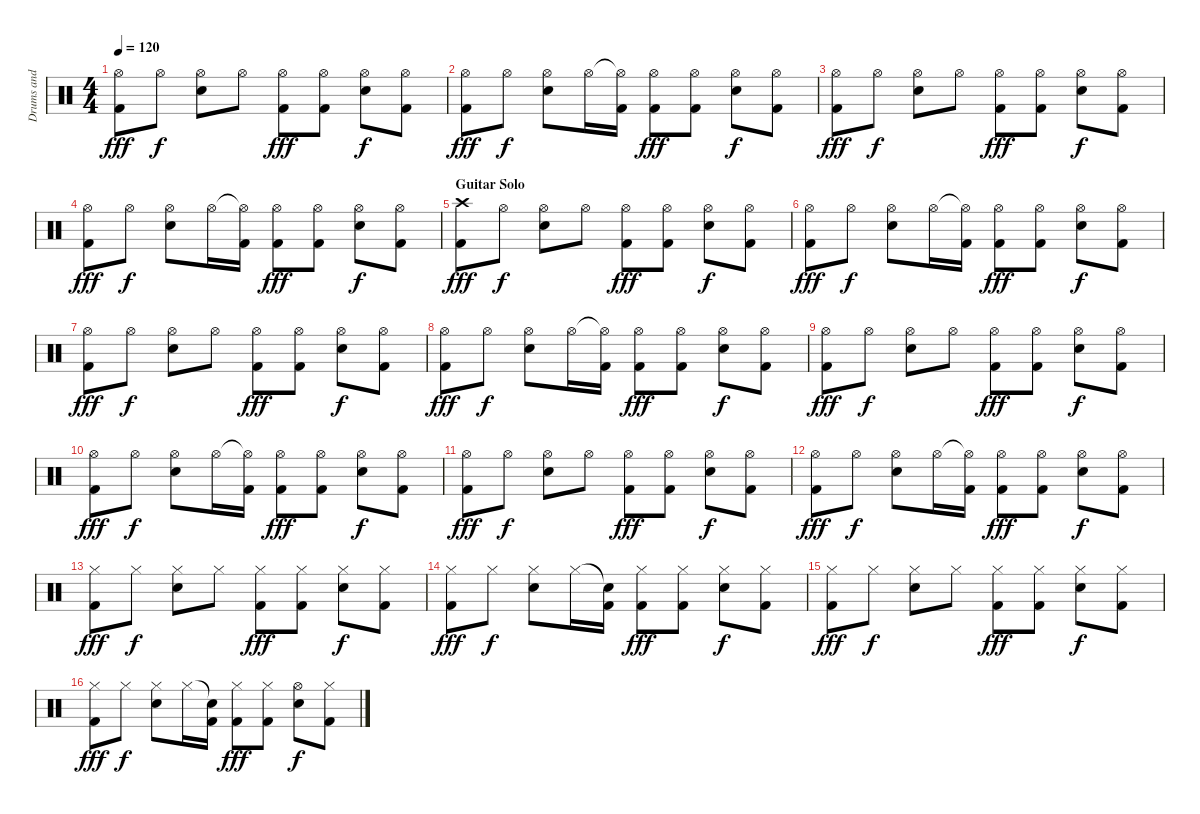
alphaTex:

\track ("Drums and Percussion" "Drums and ") {instrument percussion}
\staff {score}
\articulation defaults
\ts (4 4)
\tempo 120
\clef neutral
\ks c
("Hi-Hat (open)" "Kick (hit) 2").8{dy fff} "Hi-Hat (open)".8{dy f} ("Hi-Hat (open)" "Snare (hit) 2").8 "Hi-Hat (open)".8 ("Hi-Hat (open)" "Kick (hit) 2").8{dy fff} ("Hi-Hat (open)" "Kick (hit) 2").8 ("Hi-Hat (open)" "Snare (hit) 2").8{dy f} ("Hi-Hat (open)" "Kick (hit) 2").8 |
("Hi-Hat (open)" "Kick (hit) 2").8{dy fff} "Hi-Hat (open)".8{dy f} ("Hi-Hat (open)" "Snare (hit) 2").8 "Hi-Hat (open)".16 ("Hi-Hat (open)"{t} "Kick (hit) 2").16 ("Hi-Hat (open)" "Kick (hit) 2").8{dy fff} ("Hi-Hat (open)" "Kick (hit) 2").8 ("Hi-Hat (open)" "Snare (hit) 2").8{dy f} ("Hi-Hat (open)" "Kick (hit) 2").8 |
("Hi-Hat (open)" "Kick (hit) 2").8{dy fff} "Hi-Hat (open)".8{dy f} ("Hi-Hat (open)" "Snare (hit) 2").8 "Hi-Hat (open)".8 ("Hi-Hat (open)" "Kick (hit) 2").8{dy fff} ("Hi-Hat (open)" "Kick (hit) 2").8 ("Hi-Hat (open)" "Snare (hit) 2").8{dy f} ("Hi-Hat (open)" "Kick (hit) 2").8 |
("Hi-Hat (open)" "Kick (hit) 2").8{dy fff} "Hi-Hat (open)".8{dy f} ("Hi-Hat (open)" "Snare (hit) 2").8 "Hi-Hat (open)".16 ("Hi-Hat (open)"{t} "Kick (hit) 2").16 ("Hi-Hat (open)" "Kick (hit) 2").8{dy fff} ("Hi-Hat (open)" "Kick (hit) 2").8 ("Hi-Hat (open)" "Snare (hit) 2").8{dy f} ("Hi-Hat (open)" "Kick (hit) 2").8 |
\section ("" "Guitar Solo")
("Crash high (hit)" "Kick (hit) 2").8{dy fff} "Hi-Hat (open)".8{dy f} ("Hi-Hat (open)" "Snare (hit) 2").8 "Hi-Hat (open)".8 ("Hi-Hat (open)" "Kick (hit) 2").8{dy fff} ("Hi-Hat (open)" "Kick (hit) 2").8 ("Hi-Hat (open)" "Snare (hit) 2").8{dy f} ("Hi-Hat (open)" "Kick (hit) 2").8 |
("Hi-Hat (open)" "Kick (hit) 2").8{dy fff} "Hi-Hat (open)".8{dy f} ("Hi-Hat (open)" "Snare (hit) 2").8 "Hi-Hat (open)".16 ("Hi-Hat (open)"{t} "Kick (hit) 2").16 ("Hi-Hat (open)" "Kick (hit) 2").8{dy fff} ("Hi-Hat (open)" "Kick (hit) 2").8 ("Hi-Hat (open)" "Snare (hit) 2").8{dy f} ("Hi-Hat (open)" "Kick (hit) 2").8 |
("Hi-Hat (open)" "Kick (hit) 2").8{dy fff} "Hi-Hat (open)".8{dy f} ("Hi-Hat (open)" "Snare (hit) 2").8 "Hi-Hat (open)".8 ("Hi-Hat (open)" "Kick (hit) 2").8{dy fff} ("Hi-Hat (open)" "Kick (hit) 2").8 ("Hi-Hat (open)" "Snare (hit) 2").8{dy f} ("Hi-Hat (open)" "Kick (hit) 2").8 |
("Hi-Hat (open)" "Kick (hit) 2").8{dy fff} "Hi-Hat (open)".8{dy f} ("Hi-Hat (open)" "Snare (hit) 2").8 "Hi-Hat (open)".16 ("Hi-Hat (open)"{t} "Kick (hit) 2").16 ("Hi-Hat (open)" "Kick (hit) 2").8{dy fff} ("Hi-Hat (open)" "Kick (hit) 2").8 ("Hi-Hat (open)" "Snare (hit) 2").8{dy f} ("Hi-Hat (open)" "Kick (hit) 2").8 |
("Hi-Hat (open)" "Kick (hit) 2").8{dy fff} "Hi-Hat (open)".8{dy f} ("Hi-Hat (open)" "Snare (hit) 2").8 "Hi-Hat (open)".8 ("Hi-Hat (open)" "Kick (hit) 2").8{dy fff} ("Hi-Hat (open)" "Kick (hit) 2").8 ("Hi-Hat (open)" "Snare (hit) 2").8{dy f} ("Hi-Hat (open)" "Kick (hit) 2").8 |
("Hi-Hat (open)" "Kick (hit) 2").8{dy fff} "Hi-Hat (open)".8{dy f} ("Hi-Hat (open)" "Snare (hit) 2").8 "Hi-Hat (open)".16 ("Hi-Hat (open)"{t} "Kick (hit) 2").16 ("Hi-Hat (open)" "Kick (hit) 2").8{dy fff} ("Hi-Hat (open)" "Kick (hit) 2").8 ("Hi-Hat (open)" "Snare (hit) 2").8{dy f} ("Hi-Hat (open)" "Kick (hit) 2").8 |
("Hi-Hat (open)" "Kick (hit) 2").8{dy fff} "Hi-Hat (open)".8{dy f} ("Hi-Hat (open)" "Snare (hit) 2").8 "Hi-Hat (open)".8 ("Hi-Hat (open)" "Kick (hit) 2").8{dy fff} ("Hi-Hat (open)" "Kick (hit) 2").8 ("Hi-Hat (open)" "Snare (hit) 2").8{dy f} ("Hi-Hat (open)" "Kick (hit) 2").8 |
("Hi-Hat (open)" "Kick (hit) 2").8{dy fff} "Hi-Hat (open)".8{dy f} ("Hi-Hat (open)" "Snare (hit) 2").8 "Hi-Hat (open)".16 ("Hi-Hat (open)"{t} "Kick (hit) 2").16 ("Hi-Hat (open)" "Kick (hit) 2").8{dy fff} ("Hi-Hat (open)" "Kick (hit) 2").8 ("Hi-Hat (open)" "Snare (hit) 2").8{dy f} ("Hi-Hat (open)" "Kick (hit) 2").8 |
("Hi-Hat (closed)" "Kick (hit) 2").8{dy fff} "Hi-Hat (closed)".8{dy f} ("Hi-Hat (closed)" "Snare (hit) 2").8 "Hi-Hat (closed)".8 ("Hi-Hat (closed)" "Kick (hit) 2").8{dy fff} ("Hi-Hat (closed)" "Kick (hit) 2").8 ("Hi-Hat (closed)" "Snare (hit) 2").8{dy f} ("Hi-Hat (closed)" "Kick (hit) 2").8 |
("Hi-Hat (closed)" "Kick (hit) 2").8{dy fff} "Hi-Hat (closed)".8{dy f} ("Hi-Hat (closed)" "Snare (hit) 2").8 "Hi-Hat (closed)".16 ("Snare (hit)"{t} "Kick (hit) 2").16 ("Hi-Hat (closed)" "Kick (hit) 2").8{dy fff} ("Hi-Hat (closed)" "Kick (hit) 2").8 ("Hi-Hat (closed)" "Snare (hit) 2").8{dy f} ("Hi-Hat (closed)" "Kick (hit) 2").8 |
("Hi-Hat (closed)" "Kick (hit) 2").8{dy fff} "Hi-Hat (closed)".8{dy f} ("Hi-Hat (closed)" "Snare (hit) 2").8 "Hi-Hat (closed)".8 ("Hi-Hat (closed)" "Kick (hit) 2").8{dy fff} ("Hi-Hat (closed)" "Kick (hit) 2").8 ("Hi-Hat (closed)" "Snare (hit) 2").8{dy f} ("Hi-Hat (closed)" "Kick (hit) 2").8 |
("Hi-Hat (closed)" "Kick (hit) 2").8{dy fff} "Hi-Hat (closed)".8{dy f} ("Hi-Hat (closed)" "Snare (hit) 2").8 "Hi-Hat (closed)".16 ("Snare (hit)"{t} "Kick (hit) 2").16 ("Hi-Hat (closed)" "Kick (hit) 2").8{dy fff} ("Hi-Hat (closed)" "Kick (hit) 2").8 ("Hi-Hat (open)" "Snare (hit) 2").8{dy f} ("Hi-Hat (closed)" "Kick (hit) 2").8
